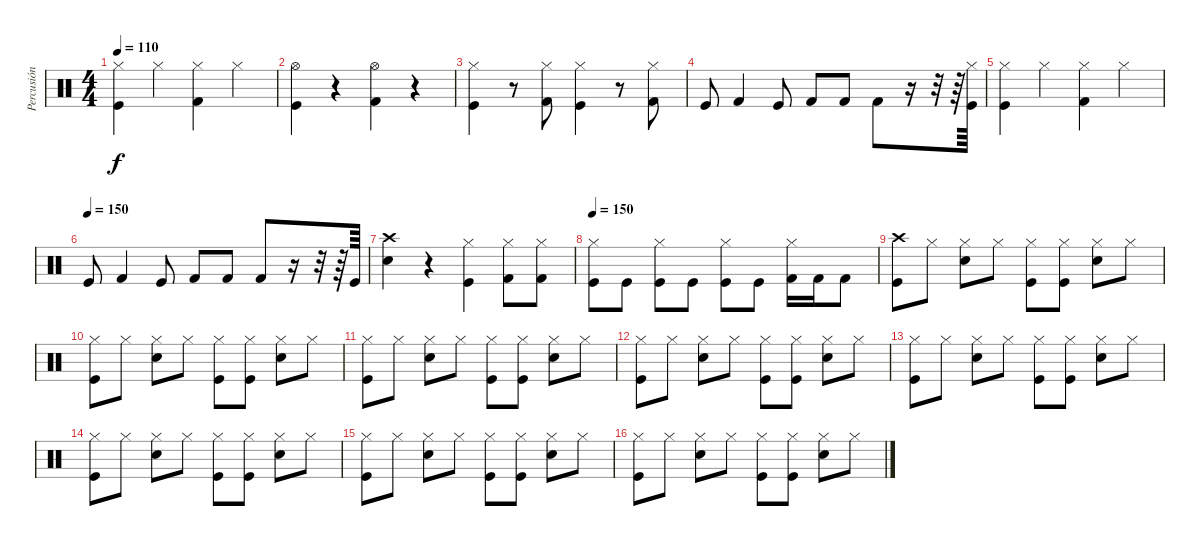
\track ("Percusión" "Percusión") {instrument percussion}
\staff {score}
\articulation defaults
\ts (4 4)
\tempo 110
\clef neutral
\ks c
("Hi-Hat (closed)" "Kick (hit)").4{dy f} "Hi-Hat (closed)".4 ("Hi-Hat (closed)" "Kick (hit) 2").4 "Hi-Hat (closed)".4 |
("Hi-Hat (open)" "Kick (hit)").4 r.4 ("Hi-Hat (open)" "Kick (hit) 2").4 r.4 |
("Hi-Hat (closed)" "Kick (hit)").4 r.8 ("Hi-Hat (closed)" "Kick (hit) 2").8 ("Hi-Hat (closed)" "Kick (hit)").4 r.8 ("Hi-Hat (closed)" "Kick (hit) 2").8 |
"Kick (hit)".8 "Kick (hit) 2".4 "Kick (hit)".8 "Kick (hit) 2".8 "Kick (hit) 2".8 "Kick (hit) 2".8 r.16 r.32 r.64 ("Hi-Hat (closed)" "Kick (hit)").64 |
("Hi-Hat (closed)" "Kick (hit)").4 "Hi-Hat (closed)".4 ("Hi-Hat (closed)" "Kick (hit) 2").4 "Hi-Hat (closed)".4 |
\tempo (150)
"Kick (hit)".8 "Kick (hit) 2".4 "Kick (hit)".8 "Kick (hit) 2".8 "Kick (hit) 2".8 "Kick (hit) 2".8 r.16 r.32 r.64 "Kick (hit)".64 |
("Crash high (hit)" "Snare (hit) 2").4 r.4 ("Hi-Hat (closed)" "Kick (hit)").4 ("Hi-Hat (closed)" "Kick (hit) 2").8 ("Hi-Hat (closed)" "Kick (hit) 2").8 |
\tempo 150
("Hi-Hat (closed)" "Kick (hit)").8 "Kick (hit)".8 ("Hi-Hat (closed)" "Kick (hit)").8 "Kick (hit)".8 ("Hi-Hat (closed)" "Kick (hit)").8 "Kick (hit)".8 ("Hi-Hat (closed)" "Kick (hit) 2").16 "Kick (hit) 2".16 "Kick (hit) 2".8 |
("Kick (hit)" "Crash high (hit)").8 "Hi-Hat (closed)".8 ("Snare (hit) 2" "Hi-Hat (closed)").8 "Hi-Hat (closed)".8 ("Kick (hit)" "Hi-Hat (closed)").8 ("Kick (hit)" "Hi-Hat (closed)").8 ("Snare (hit) 2" "Hi-Hat (closed)").8 "Hi-Hat (closed)".8 |
("Kick (hit)" "Hi-Hat (closed)").8 "Hi-Hat (closed)".8 ("Snare (hit) 2" "Hi-Hat (closed)").8 "Hi-Hat (closed)".8 ("Kick (hit)" "Hi-Hat (closed)").8 ("Kick (hit)" "Hi-Hat (closed)").8 ("Snare (hit) 2" "Hi-Hat (closed)").8 "Hi-Hat (closed)".8 |
("Kick (hit)" "Hi-Hat (closed)").8 "Hi-Hat (closed)".8 ("Snare (hit) 2" "Hi-Hat (closed)").8 "Hi-Hat (closed)".8 ("Kick (hit)" "Hi-Hat (closed)").8 ("Kick (hit)" "Hi-Hat (closed)").8 ("Snare (hit) 2" "Hi-Hat (closed)").8 "Hi-Hat (closed)".8 |
("Kick (hit)" "Hi-Hat (closed)").8 "Hi-Hat (closed)".8 ("Snare (hit) 2" "Hi-Hat (closed)").8 "Hi-Hat (closed)".8 ("Kick (hit)" "Hi-Hat (closed)").8 ("Kick (hit)" "Hi-Hat (closed)").8 ("Snare (hit) 2" "Hi-Hat (closed)").8 "Hi-Hat (closed)".8 |
("Kick (hit)" "Hi-Hat (closed)").8 "Hi-Hat (closed)".8 ("Snare (hit) 2" "Hi-Hat (closed)").8 "Hi-Hat (closed)".8 ("Kick (hit)" "Hi-Hat (closed)").8 ("Kick (hit)" "Hi-Hat (closed)").8 ("Snare (hit) 2" "Hi-Hat (closed)").8 "Hi-Hat (closed)".8 |
("Kick (hit)" "Hi-Hat (closed)").8 "Hi-Hat (closed)".8 ("Snare (hit) 2" "Hi-Hat (closed)").8 "Hi-Hat (closed)".8 ("Kick (hit)" "Hi-Hat (closed)").8 ("Kick (hit)" "Hi-Hat (closed)").8 ("Snare (hit) 2" "Hi-Hat (closed)").8 "Hi-Hat (closed)".8 |
("Kick (hit)" "Hi-Hat (closed)").8 "Hi-Hat (closed)".8 ("Snare (hit) 2" "Hi-Hat (closed)").8 "Hi-Hat (closed)".8 ("Kick (hit)" "Hi-Hat (closed)").8 ("Kick (hit)" "Hi-Hat (closed)").8 ("Snare (hit) 2" "Hi-Hat (closed)").8 "Hi-Hat (closed)".8 |
("Kick (hit)" "Hi-Hat (closed)").8 "Hi-Hat (closed)".8 ("Snare (hit) 2" "Hi-Hat (closed)").8 "Hi-Hat (closed)".8 ("Kick (hit)" "Hi-Hat (closed)").8 ("Kick (hit)" "Hi-Hat (closed)").8 ("Snare (hit) 2" "Hi-Hat (closed)").8 "Hi-Hat (closed)".8
